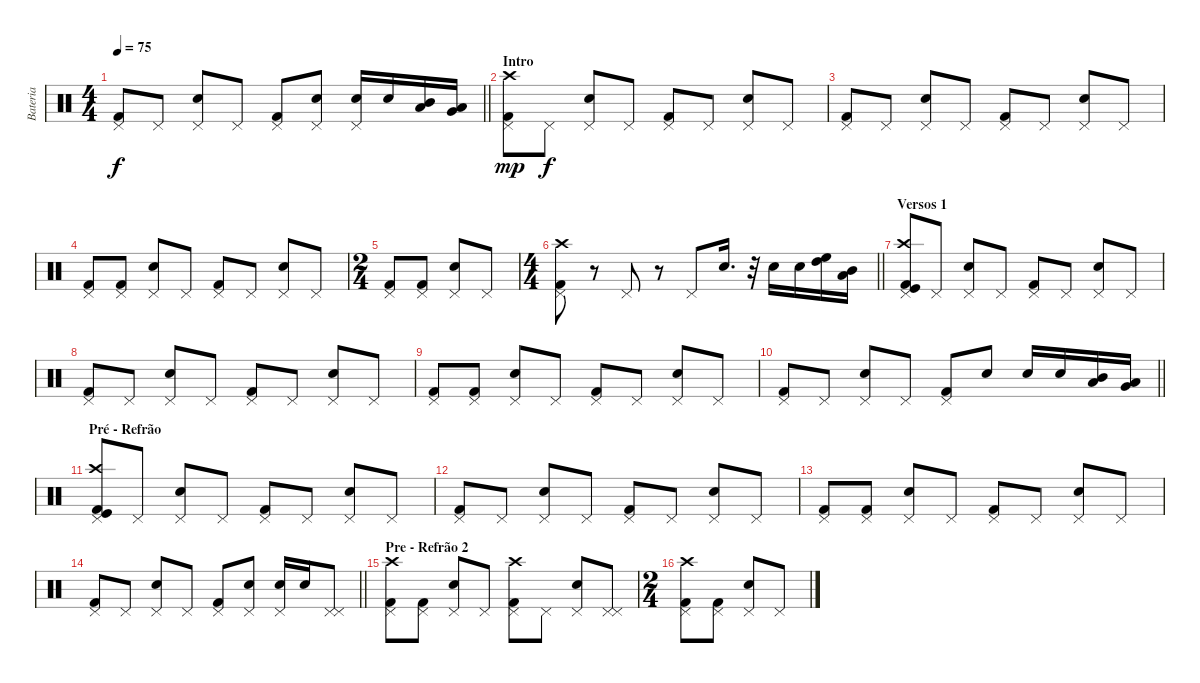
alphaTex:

\track ("Bateria" "Bateria") {instrument percussion}
\staff {score}
\articulation defaults
\ts (4 4)
\tempo 75
\clef neutral
\barLineRight lightlight
\ks c
("Kick (hit) 2" "Pedal Hi-Hat (hit)").8{dy f} "Pedal Hi-Hat (hit)".8 ("Snare (hit) 2" "Pedal Hi-Hat (hit)").8 "Pedal Hi-Hat (hit)".8 ("Pedal Hi-Hat (hit)" "Kick (hit) 2").8 ("Snare (hit) 2" "Pedal Hi-Hat (hit)").8 ("Snare (hit) 2" "Pedal Hi-Hat (hit)").16 "Snare (hit) 2".16 ("Mid Tom (hit)" "Low Tom (hit)").16 ("Low Floor Tom (hit)" "Very Low Tom (hit)").16 |
\section ("" "Intro")
("Kick (hit) 2" "Crash high (hit)" "Pedal Hi-Hat (hit)").8{dy mp} "Pedal Hi-Hat (hit)".8{dy f} ("Snare (hit) 2" "Pedal Hi-Hat (hit)").8 "Pedal Hi-Hat (hit)".8 ("Pedal Hi-Hat (hit)" "Kick (hit) 2").8 "Pedal Hi-Hat (hit)".8 ("Snare (hit) 2" "Pedal Hi-Hat (hit)").8 "Pedal Hi-Hat (hit)".8 |
("Kick (hit) 2" "Pedal Hi-Hat (hit)").8 "Pedal Hi-Hat (hit)".8 ("Pedal Hi-Hat (hit)" "Snare (hit) 2").8 "Pedal Hi-Hat (hit)".8 ("Kick (hit) 2" "Pedal Hi-Hat (hit)").8 "Pedal Hi-Hat (hit)".8 ("Snare (hit) 2" "Pedal Hi-Hat (hit)").8 "Pedal Hi-Hat (hit)".8 |
("Kick (hit) 2" "Pedal Hi-Hat (hit)").8 ("Kick (hit) 2" "Pedal Hi-Hat (hit)").8 ("Snare (hit) 2" "Pedal Hi-Hat (hit)").8 "Pedal Hi-Hat (hit)".8 ("Kick (hit) 2" "Pedal Hi-Hat (hit)").8 "Pedal Hi-Hat (hit)".8 ("Pedal Hi-Hat (hit)" "Snare (hit) 2").8 "Pedal Hi-Hat (hit)".8 |
\ts (2 4)
("Pedal Hi-Hat (hit)" "Kick (hit) 2").8 ("Kick (hit) 2" "Pedal Hi-Hat (hit)").8 ("Pedal Hi-Hat (hit)" "Snare (hit) 2").8 "Pedal Hi-Hat (hit)".8 |
\ts (4 4)
\barLineRight lightlight
("Pedal Hi-Hat (hit)" "Kick (hit) 2" "Crash high (hit)").8 r.8 "Pedal Hi-Hat (hit)".8 r.8 "Pedal Hi-Hat (hit)".8 "Snare (hit) 2".16{d} r.32 "Snare (hit) 2".16 "Snare (hit) 2".16 ("High Tom (hit)" "High Floor Tom (hit)").16 ("Mid Tom (hit)" "Low Tom (hit)").16 |
\section ("" "Versos 1")
("Kick (hit)" "Crash high (hit)" "Kick (hit) 2" "Pedal Hi-Hat (hit)").8 "Pedal Hi-Hat (hit)".8 ("Snare (hit) 2" "Pedal Hi-Hat (hit)").8 "Pedal Hi-Hat (hit)".8 ("Kick (hit) 2" "Pedal Hi-Hat (hit)").8 "Pedal Hi-Hat (hit)".8 ("Pedal Hi-Hat (hit)" "Snare (hit) 2").8 "Pedal Hi-Hat (hit)".8 |
("Pedal Hi-Hat (hit)" "Kick (hit) 2").8 "Pedal Hi-Hat (hit)".8 ("Snare (hit) 2" "Pedal Hi-Hat (hit)").8 "Pedal Hi-Hat (hit)".8 ("Pedal Hi-Hat (hit)" "Kick (hit) 2").8 "Pedal Hi-Hat (hit)".8 ("Pedal Hi-Hat (hit)" "Snare (hit) 2").8 "Pedal Hi-Hat (hit)".8 |
("Pedal Hi-Hat (hit)" "Kick (hit) 2").8 ("Kick (hit) 2" "Pedal Hi-Hat (hit)").8 ("Pedal Hi-Hat (hit)" "Snare (hit) 2").8 "Pedal Hi-Hat (hit)".8 ("Kick (hit) 2" "Pedal Hi-Hat (hit)").8 "Pedal Hi-Hat (hit)".8 ("Pedal Hi-Hat (hit)" "Snare (hit) 2").8 "Pedal Hi-Hat (hit)".8 |
\barLineRight lightlight
("Pedal Hi-Hat (hit)" "Kick (hit) 2").8 "Pedal Hi-Hat (hit)".8 ("Pedal Hi-Hat (hit)" "Snare (hit) 2").8 "Pedal Hi-Hat (hit)".8 ("Pedal Hi-Hat (hit)" "Kick (hit) 2").8 "Snare (hit) 2".8 "Snare (hit) 2".16 "Snare (hit) 2".16 ("Mid Tom (hit)" "Low Tom (hit)").16 ("Very Low Tom (hit)" "Low Floor Tom (hit)").16 |
\section ("" "Pré - Refrão")
("Kick (hit)" "Crash high (hit)" "Kick (hit) 2" "Pedal Hi-Hat (hit)").8 "Pedal Hi-Hat (hit)".8 ("Snare (hit) 2" "Pedal Hi-Hat (hit)").8 "Pedal Hi-Hat (hit)".8 ("Kick (hit) 2" "Pedal Hi-Hat (hit)").8 "Pedal Hi-Hat (hit)".8 ("Pedal Hi-Hat (hit)" "Snare (hit) 2").8 "Pedal Hi-Hat (hit)".8 |
("Pedal Hi-Hat (hit)" "Kick (hit) 2").8 "Pedal Hi-Hat (hit)".8 ("Snare (hit) 2" "Pedal Hi-Hat (hit)").8 "Pedal Hi-Hat (hit)".8 ("Pedal Hi-Hat (hit)" "Kick (hit) 2").8 "Pedal Hi-Hat (hit)".8 ("Pedal Hi-Hat (hit)" "Snare (hit) 2").8 "Pedal Hi-Hat (hit)".8 |
("Pedal Hi-Hat (hit)" "Kick (hit) 2").8 ("Kick (hit) 2" "Pedal Hi-Hat (hit)").8 ("Pedal Hi-Hat (hit)" "Snare (hit) 2").8 "Pedal Hi-Hat (hit)".8 ("Kick (hit) 2" "Pedal Hi-Hat (hit)").8 "Pedal Hi-Hat (hit)".8 ("Pedal Hi-Hat (hit)" "Snare (hit) 2").8 "Pedal Hi-Hat (hit)".8 |
\barLineRight lightlight
("Pedal Hi-Hat (hit)" "Kick (hit) 2").8 "Pedal Hi-Hat (hit)".8 ("Pedal Hi-Hat (hit)" "Snare (hit) 2").8 "Pedal Hi-Hat (hit)".8 ("Pedal Hi-Hat (hit)" "Kick (hit) 2").8 ("Pedal Hi-Hat (hit)" "Snare (hit) 2").8 ("Pedal Hi-Hat (hit)" "Snare (hit) 2").16 "Snare (hit) 2".16 ("Pedal Hi-Hat (hit)" "Pedal Hi-Hat (hit)").8 |
\section ("" "Pre - Refrão 2")
("Crash high (hit)" "Pedal Hi-Hat (hit)" "Kick (hit) 2").8 ("Kick (hit) 2" "Pedal Hi-Hat (hit)").8 ("Pedal Hi-Hat (hit)" "Snare (hit) 2").8 "Pedal Hi-Hat (hit)".8 ("Crash high (hit)" "Kick (hit) 2" "Pedal Hi-Hat (hit)").8 "Pedal Hi-Hat (hit)".8 ("Pedal Hi-Hat (hit)" "Snare (hit) 2").8 ("Pedal Hi-Hat (hit)" "Pedal Hi-Hat (hit)").8 |
\ts (2 4)
("Crash high (hit)" "Pedal Hi-Hat (hit)" "Kick (hit) 2").8 ("Kick (hit) 2" "Pedal Hi-Hat (hit)").8 ("Pedal Hi-Hat (hit)" "Snare (hit) 2").8 "Pedal Hi-Hat (hit)".8
